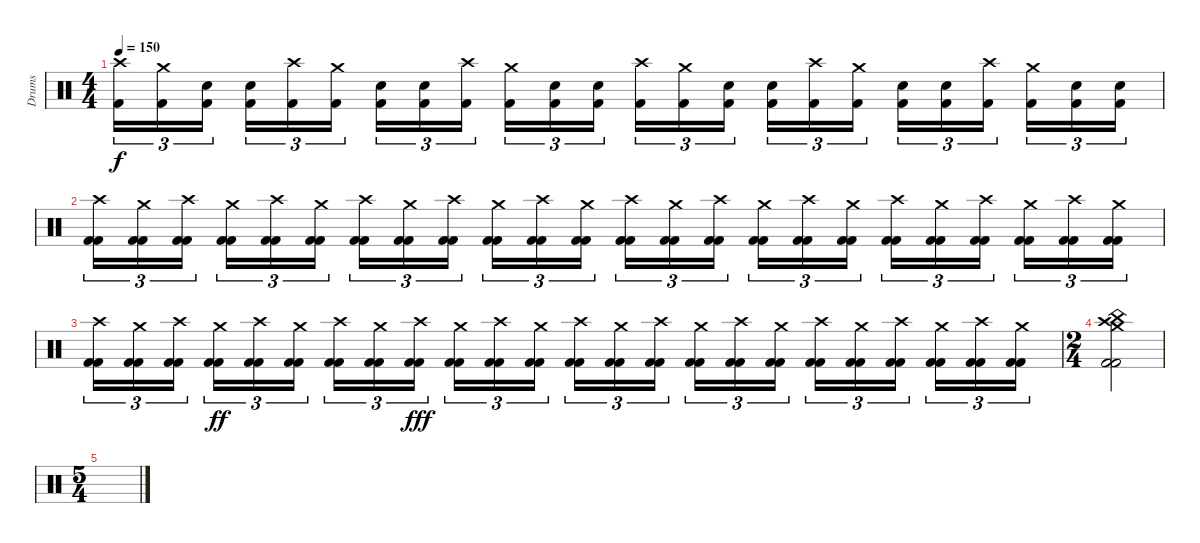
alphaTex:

\track ("Drums" "Drums") {instrument percussion}
\staff {score}
\articulation defaults
\ts (4 4)
\tempo 150
\clef neutral
\ks c
("Crash high (hit)" "Kick (hit) 2").16{tu (3 2) dy f} ("Crash medium (hit)" "Kick (hit) 2").16{tu (3 2)} ("Electric Snare (hit)" "Kick (hit) 2").16{tu (3 2)} ("Electric Snare (hit)" "Kick (hit) 2").16{tu (3 2)} ("Crash high (hit)" "Kick (hit) 2").16{tu (3 2)} ("Crash medium (hit)" "Kick (hit) 2").16{tu (3 2)} ("Electric Snare (hit)" "Kick (hit) 2").16{tu (3 2)} ("Electric Snare (hit)" "Kick (hit) 2").16{tu (3 2)} ("Crash high (hit)" "Kick (hit) 2").16{tu (3 2)} ("Crash medium (hit)" "Kick (hit) 2").16{tu (3 2)} ("Electric Snare (hit)" "Kick (hit) 2").16{tu (3 2)} ("Electric Snare (hit)" "Kick (hit) 2").16{tu (3 2)} ("Crash high (hit)" "Kick (hit) 2").16{tu (3 2)} ("Crash medium (hit)" "Kick (hit) 2").16{tu (3 2)} ("Electric Snare (hit)" "Kick (hit) 2").16{tu (3 2)} ("Electric Snare (hit)" "Kick (hit) 2").16{tu (3 2)} ("Crash high (hit)" "Kick (hit) 2").16{tu (3 2)} ("Crash medium (hit)" "Kick (hit) 2").16{tu (3 2)} ("Electric Snare (hit)" "Kick (hit) 2").16{tu (3 2)} ("Electric Snare (hit)" "Kick (hit) 2").16{tu (3 2)} ("Crash high (hit)" "Kick (hit) 2").16{tu (3 2)} ("Crash medium (hit)" "Kick (hit) 2").16{tu (3 2)} ("Electric Snare (hit)" "Kick (hit) 2").16{tu (3 2)} ("Electric Snare (hit)" "Kick (hit) 2").16{tu (3 2)} |
("Crash high (hit)" "Kick (hit) 2" "Kick (hit) 2").16{tu (3 2)} ("Crash medium (hit)" "Kick (hit) 2" "Kick (hit) 2").16{tu (3 2)} ("Crash high (hit)" "Kick (hit) 2" "Kick (hit) 2").16{tu (3 2)} ("Crash medium (hit)" "Kick (hit) 2" "Kick (hit) 2").16{tu (3 2)} ("Crash high (hit)" "Kick (hit) 2" "Kick (hit) 2").16{tu (3 2)} ("Crash medium (hit)" "Kick (hit) 2" "Kick (hit) 2").16{tu (3 2)} ("Crash high (hit)" "Kick (hit) 2" "Kick (hit) 2").16{tu (3 2)} ("Crash medium (hit)" "Kick (hit) 2" "Kick (hit) 2").16{tu (3 2)} ("Crash high (hit)" "Kick (hit) 2" "Kick (hit) 2").16{tu (3 2)} ("Crash medium (hit)" "Kick (hit) 2" "Kick (hit) 2").16{tu (3 2)} ("Crash high (hit)" "Kick (hit) 2" "Kick (hit) 2").16{tu (3 2)} ("Crash medium (hit)" "Kick (hit) 2" "Kick (hit) 2").16{tu (3 2)} ("Crash high (hit)" "Kick (hit) 2" "Kick (hit) 2").16{tu (3 2)} ("Crash medium (hit)" "Kick (hit) 2" "Kick (hit) 2").16{tu (3 2)} ("Crash high (hit)" "Kick (hit) 2" "Kick (hit) 2").16{tu (3 2)} ("Crash medium (hit)" "Kick (hit) 2" "Kick (hit) 2").16{tu (3 2)} ("Crash high (hit)" "Kick (hit) 2" "Kick (hit) 2").16{tu (3 2)} ("Crash medium (hit)" "Kick (hit) 2" "Kick (hit) 2").16{tu (3 2)} ("Crash high (hit)" "Kick (hit) 2" "Kick (hit) 2").16{tu (3 2)} ("Crash medium (hit)" "Kick (hit) 2" "Kick (hit) 2").16{tu (3 2)} ("Crash high (hit)" "Kick (hit) 2" "Kick (hit) 2").16{tu (3 2)} ("Crash medium (hit)" "Kick (hit) 2" "Kick (hit) 2").16{tu (3 2)} ("Crash high (hit)" "Kick (hit) 2" "Kick (hit) 2").16{tu (3 2)} ("Crash medium (hit)" "Kick (hit) 2" "Kick (hit) 2").16{tu (3 2)} |
("Crash high (hit)" "Kick (hit) 2" "Kick (hit) 2").16{tu (3 2)} ("Crash medium (hit)" "Kick (hit) 2" "Kick (hit) 2").16{tu (3 2)} ("Crash high (hit)" "Kick (hit) 2" "Kick (hit) 2").16{tu (3 2)} ("Crash medium (hit)" "Kick (hit) 2" "Kick (hit) 2").16{tu (3 2) dy ff} ("Crash high (hit)" "Kick (hit) 2" "Kick (hit) 2").16{tu (3 2)} ("Crash medium (hit)" "Kick (hit) 2" "Kick (hit) 2").16{tu (3 2)} ("Crash high (hit)" "Kick (hit) 2" "Kick (hit) 2").16{tu (3 2)} ("Crash medium (hit)" "Kick (hit) 2" "Kick (hit) 2").16{tu (3 2)} ("Crash high (hit)" "Kick (hit) 2" "Kick (hit) 2").16{tu (3 2) dy fff} ("Crash medium (hit)" "Kick (hit) 2" "Kick (hit) 2").16{tu (3 2)} ("Crash high (hit)" "Kick (hit) 2" "Kick (hit) 2").16{tu (3 2)} ("Crash medium (hit)" "Kick (hit) 2" "Kick (hit) 2").16{tu (3 2)} ("Crash high (hit)" "Kick (hit) 2" "Kick (hit) 2").16{tu (3 2)} ("Crash medium (hit)" "Kick (hit) 2" "Kick (hit) 2").16{tu (3 2)} ("Crash high (hit)" "Kick (hit) 2" "Kick (hit) 2").16{tu (3 2)} ("Crash medium (hit)" "Kick (hit) 2" "Kick (hit) 2").16{tu (3 2)} ("Crash high (hit)" "Kick (hit) 2" "Kick (hit) 2").16{tu (3 2)} ("Crash medium (hit)" "Kick (hit) 2" "Kick (hit) 2").16{tu (3 2)} ("Crash high (hit)" "Kick (hit) 2" "Kick (hit) 2").16{tu (3 2)} ("Crash medium (hit)" "Kick (hit) 2" "Kick (hit) 2").16{tu (3 2)} ("Crash high (hit)" "Kick (hit) 2" "Kick (hit) 2").16{tu (3 2)} ("Crash medium (hit)" "Kick (hit) 2" "Kick (hit) 2").16{tu (3 2)} ("Crash high (hit)" "Kick (hit) 2" "Kick (hit) 2").16{tu (3 2)} ("Crash medium (hit)" "Kick (hit) 2" "Kick (hit) 2").16{tu (3 2)} |
\ts (2 4)
("Crash high (hit)" "Crash medium (hit)" "China (hit)" "Kick (hit) 2" "Kick (hit) 2").2 |
\ts (5 4)
